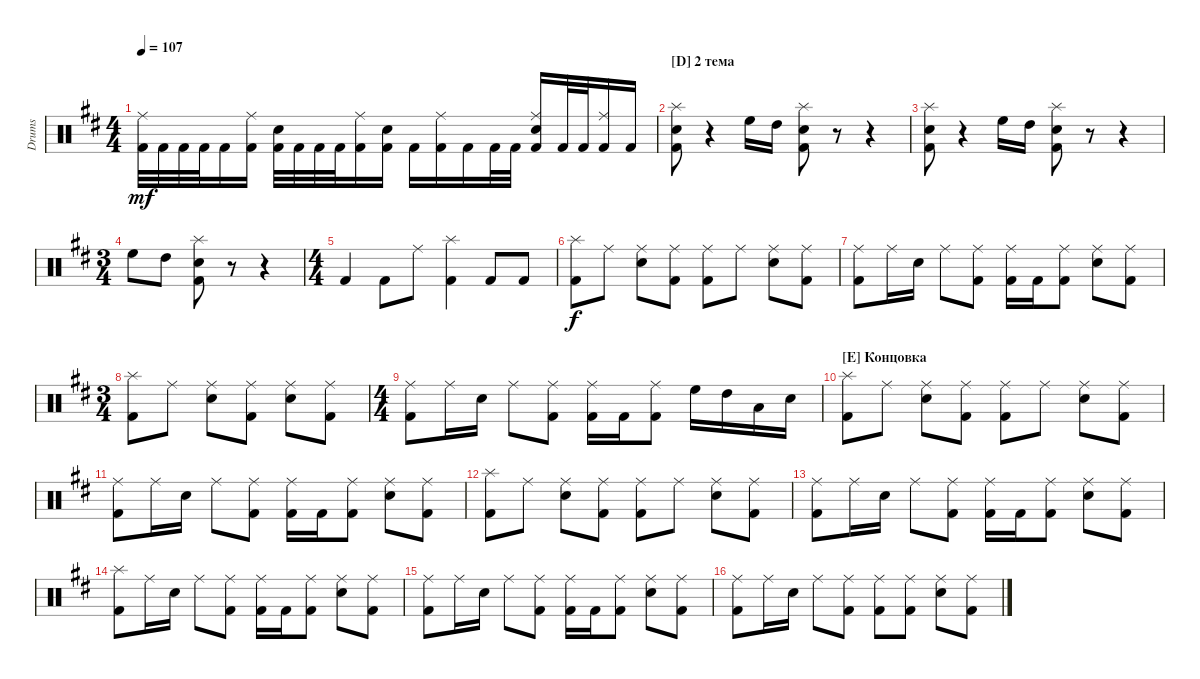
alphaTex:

\bracketExtendMode groupsimilarinstruments
\track ("Drumkit" "Drums") {multiBarRest instrument percussion}
\staff {score}
\articulation defaults
\ts (4 4)
\tempo 107
\clef neutral
\ks bminor
("Kick (hit) 2"{acc forcenatural} "Ride (middle)"{acc forcenatural}).32{dy mf beam Down} "Kick (hit) 2"{acc forcenatural}.32{beam Down} "Kick (hit) 2"{acc forcenatural}.32{beam Down} "Kick (hit) 2"{acc forcenatural}.32{beam Down} "Kick (hit) 2"{acc forcenatural}.16{beam Down} ("Kick (hit) 2"{acc forcenatural} "Ride (middle)"{acc forcenatural}).16{beam Down} ("Kick (hit) 2"{acc forcenatural} "Snare (hit) 2"{acc forcenatural}).32{beam Down} "Kick (hit) 2"{acc forcenatural}.32{beam Down} "Kick (hit) 2"{acc forcenatural}.32{beam Down} "Kick (hit) 2"{acc forcenatural}.32{beam Down} ("Kick (hit) 2"{acc forcenatural} "Ride (middle)"{acc forcenatural}).16{beam Down} ("Kick (hit) 2"{acc forcenatural} "Snare (hit) 2"{acc forcenatural}).16{beam Down} "Kick (hit) 2"{acc forcenatural}.16{beam Down} ("Kick (hit) 2"{acc forcenatural} "Ride (middle)"{acc forcenatural}).16{beam Down} "Kick (hit) 2"{acc forcenatural}.16{beam Down} "Kick (hit) 2"{acc forcenatural}.32{beam Down} "Kick (hit) 2"{acc forcenatural}.32{beam Down} ("Kick (hit) 2"{acc forcenatural} "Ride (middle)"{acc forcenatural} "Snare (hit) 2"{acc forcenatural}).16{beam Up} "Kick (hit) 2"{acc forcenatural}.32{beam Up} "Kick (hit) 2"{acc forcenatural}.32{beam Up} ("Kick (hit) 2"{acc forcenatural} "Ride (middle)"{acc forcenatural}).16{beam Up} "Kick (hit) 2"{acc forcenatural}.16{beam Up} |
\section ("D" "2 тема")
("Kick (hit) 2"{acc forcenatural} "Snare (hit) 2"{acc forcenatural} "Splash (hit)"{acc forcenatural}).8{beam Down} r.4{beam Down} "High Floor Tom (hit)"{acc forcenatural}.16{beam Down} "High Tom (hit)"{acc forcenatural}.16{beam Down} ("Snare (hit) 2"{acc forcenatural} "Splash (hit)"{acc forcenatural} "Kick (hit) 2"{acc forcenatural}).8{beam Down} r.8{beam Down} r.4{beam Down} |
("Kick (hit) 2"{acc forcenatural} "Snare (hit) 2"{acc forcenatural} "Splash (hit)"{acc forcenatural}).8{beam Down} r.4{beam Down} "High Floor Tom (hit)"{acc forcenatural}.16{beam Down} "High Tom (hit)"{acc forcenatural}.16{beam Down} ("Snare (hit) 2"{acc forcenatural} "Splash (hit)"{acc forcenatural} "Kick (hit) 2"{acc forcenatural}).8{beam Down} r.8{beam Down} r.4{beam Down} |
\ts (3 4)
"High Floor Tom (hit)"{acc forcenatural}.8{beam Down} "High Tom (hit)"{acc forcenatural}.8{beam Down} ("Snare (hit) 2"{acc forcenatural} "Splash (hit)"{acc forcenatural} "Kick (hit) 2"{acc forcenatural}).8{beam Down} r.8{beam Down} r.4{beam Down} |
\ts (4 4)
"Kick (hit) 2"{acc forcenatural}.4{beam Up} "Kick (hit) 2"{acc forcenatural}.8{beam Down} "Ride (middle)"{acc forcenatural}.8{beam Down} ("Splash (hit)"{acc forcenatural} "Kick (hit) 2"{acc forcenatural}).4{beam Down} "Kick (hit) 2"{acc forcenatural}.8{beam Up} "Kick (hit) 2"{acc forcenatural}.8{beam Up} |
("Kick (hit) 2"{acc forcenatural} "Splash (hit)"{acc forcenatural}).8{dy f beam Down} "Ride (middle)"{acc forcenatural}.8{beam Down} ("Ride (middle)"{acc forcenatural} "Snare (hit) 2"{acc forcenatural}).8{beam Down} ("Ride (middle)"{acc forcenatural} "Kick (hit) 2"{acc forcenatural}).8{beam Down} ("Kick (hit) 2"{acc forcenatural} "Ride (middle)"{acc forcenatural}).8{beam Down} "Ride (middle)"{acc forcenatural}.8{beam Down} ("Snare (hit) 2"{acc forcenatural} "Ride (middle)"{acc forcenatural}).8{beam Down} ("Ride (middle)"{acc forcenatural} "Kick (hit) 2"{acc forcenatural}).8{beam Down} |
("Kick (hit) 2"{acc forcenatural} "Ride (middle)"{acc forcenatural}).8{beam Down} "Ride (middle)"{acc forcenatural}.16{beam Down} "Snare (hit) 2"{acc forcenatural}.16{beam Down} "Ride (middle)"{acc forcenatural}.8{beam Down} ("Ride (middle)"{acc forcenatural} "Kick (hit) 2"{acc forcenatural}).8{beam Down} ("Kick (hit) 2"{acc forcenatural} "Ride (middle)"{acc forcenatural}).16{beam Down} "Kick (hit) 2"{acc forcenatural}.16{beam Down} ("Kick (hit) 2"{acc forcenatural} "Ride (middle)"{acc forcenatural}).8{beam Down} ("Snare (hit) 2"{acc forcenatural} "Ride (middle)"{acc forcenatural}).8{beam Down} ("Ride (middle)"{acc forcenatural} "Kick (hit) 2"{acc forcenatural}).8{beam Down} |
\ts (3 4)
("Kick (hit) 2"{acc forcenatural} "Splash (hit)"{acc forcenatural}).8{beam Down} "Ride (middle)"{acc forcenatural}.8{beam Down} ("Ride (middle)"{acc forcenatural} "Snare (hit) 2"{acc forcenatural}).8{beam Down} ("Ride (middle)"{acc forcenatural} "Kick (hit) 2"{acc forcenatural}).8{beam Down} ("Ride (middle)"{acc forcenatural} "Snare (hit) 2"{acc forcenatural}).8{beam Down} ("Ride (middle)"{acc forcenatural} "Kick (hit) 2"{acc forcenatural}).8{beam Down} |
\ts (4 4)
("Kick (hit) 2"{acc forcenatural} "Ride (middle)"{acc forcenatural}).8{beam Down} "Ride (middle)"{acc forcenatural}.16{beam Down} "Snare (hit) 2"{acc forcenatural}.16{beam Down} "Ride (middle)"{acc forcenatural}.8{beam Down} ("Ride (middle)"{acc forcenatural} "Kick (hit) 2"{acc forcenatural}).8{beam Down} ("Kick (hit) 2"{acc forcenatural} "Ride (middle)"{acc forcenatural}).16{beam Down} "Kick (hit) 2"{acc forcenatural}.16{beam Down} ("Kick (hit) 2"{acc forcenatural} "Ride (middle)"{acc forcenatural}).8{beam Down} "High Floor Tom (hit)"{acc forcenatural}.16{beam Down} "High Tom (hit)"{acc forcenatural}.16{beam Down} "Low Tom (hit)"{acc forcenatural}.16{beam Down} "Snare (hit) 2"{acc forcenatural}.16{beam Down} |
\section ("E" "Концовка")
("Kick (hit) 2"{acc forcenatural} "Splash (hit)"{acc forcenatural}).8{beam Down} "Ride (middle)"{acc forcenatural}.8{beam Down} ("Ride (middle)"{acc forcenatural} "Snare (hit) 2"{acc forcenatural}).8{beam Down} ("Ride (middle)"{acc forcenatural} "Kick (hit) 2"{acc forcenatural}).8{beam Down} ("Kick (hit) 2"{acc forcenatural} "Ride (middle)"{acc forcenatural}).8{beam Down} "Ride (middle)"{acc forcenatural}.8{beam Down} ("Snare (hit) 2"{acc forcenatural} "Ride (middle)"{acc forcenatural}).8{beam Down} ("Ride (middle)"{acc forcenatural} "Kick (hit) 2"{acc forcenatural}).8{beam Down} |
("Kick (hit) 2"{acc forcenatural} "Ride (middle)"{acc forcenatural}).8{beam Down} "Ride (middle)"{acc forcenatural}.16{beam Down} "Snare (hit) 2"{acc forcenatural}.16{beam Down} "Ride (middle)"{acc forcenatural}.8{beam Down} ("Ride (middle)"{acc forcenatural} "Kick (hit) 2"{acc forcenatural}).8{beam Down} ("Kick (hit) 2"{acc forcenatural} "Ride (middle)"{acc forcenatural}).16{beam Down} "Kick (hit) 2"{acc forcenatural}.16{beam Down} ("Kick (hit) 2"{acc forcenatural} "Ride (middle)"{acc forcenatural}).8{beam Down} ("Snare (hit) 2"{acc forcenatural} "Ride (middle)"{acc forcenatural}).8{beam Down} ("Ride (middle)"{acc forcenatural} "Kick (hit) 2"{acc forcenatural}).8{beam Down} |
("Kick (hit) 2"{acc forcenatural} "Splash (hit)"{acc forcenatural}).8{beam Down} "Ride (middle)"{acc forcenatural}.8{beam Down} ("Ride (middle)"{acc forcenatural} "Snare (hit) 2"{acc forcenatural}).8{beam Down} ("Ride (middle)"{acc forcenatural} "Kick (hit) 2"{acc forcenatural}).8{beam Down} ("Kick (hit) 2"{acc forcenatural} "Ride (middle)"{acc forcenatural}).8{beam Down} "Ride (middle)"{acc forcenatural}.8{beam Down} ("Snare (hit) 2"{acc forcenatural} "Ride (middle)"{acc forcenatural}).8{beam Down} ("Ride (middle)"{acc forcenatural} "Kick (hit) 2"{acc forcenatural}).8{beam Down} |
("Kick (hit) 2"{acc forcenatural} "Ride (middle)"{acc forcenatural}).8{beam Down} "Ride (middle)"{acc forcenatural}.16{beam Down} "Snare (hit) 2"{acc forcenatural}.16{beam Down} "Ride (middle)"{acc forcenatural}.8{beam Down} ("Ride (middle)"{acc forcenatural} "Kick (hit) 2"{acc forcenatural}).8{beam Down} ("Kick (hit) 2"{acc forcenatural} "Ride (middle)"{acc forcenatural}).16{beam Down} "Kick (hit) 2"{acc forcenatural}.16{beam Down} ("Kick (hit) 2"{acc forcenatural} "Ride (middle)"{acc forcenatural}).8{beam Down} ("Snare (hit) 2"{acc forcenatural} "Ride (middle)"{acc forcenatural}).8{beam Down} ("Ride (middle)"{acc forcenatural} "Kick (hit) 2"{acc forcenatural}).8{beam Down} |
("Kick (hit) 2"{acc forcenatural} "Splash (hit)"{acc forcenatural}).8{beam Down} "Ride (middle)"{acc forcenatural}.16{beam Down} "Snare (hit) 2"{acc forcenatural}.16{beam Down} "Ride (middle)"{acc forcenatural}.8{beam Down} ("Ride (middle)"{acc forcenatural} "Kick (hit) 2"{acc forcenatural}).8{beam Down} ("Kick (hit) 2"{acc forcenatural} "Ride (middle)"{acc forcenatural}).16{beam Down} "Kick (hit) 2"{acc forcenatural}.16{beam Down} ("Kick (hit) 2"{acc forcenatural} "Ride (middle)"{acc forcenatural}).8{beam Down} ("Snare (hit) 2"{acc forcenatural} "Ride (middle)"{acc forcenatural}).8{beam Down} ("Ride (middle)"{acc forcenatural} "Kick (hit) 2"{acc forcenatural}).8{beam Down} |
("Kick (hit) 2"{acc forcenatural} "Ride (middle)"{acc forcenatural}).8{beam Down} "Ride (middle)"{acc forcenatural}.16{beam Down} "Snare (hit) 2"{acc forcenatural}.16{beam Down} "Ride (middle)"{acc forcenatural}.8{beam Down} ("Ride (middle)"{acc forcenatural} "Kick (hit) 2"{acc forcenatural}).8{beam Down} ("Kick (hit) 2"{acc forcenatural} "Ride (middle)"{acc forcenatural}).16{beam Down} "Kick (hit) 2"{acc forcenatural}.16{beam Down} ("Kick (hit) 2"{acc forcenatural} "Ride (middle)"{acc forcenatural}).8{beam Down} ("Snare (hit) 2"{acc forcenatural} "Ride (middle)"{acc forcenatural}).8{beam Down} ("Ride (middle)"{acc forcenatural} "Kick (hit) 2"{acc forcenatural}).8{beam Down} |
("Kick (hit) 2"{acc forcenatural} "Ride (middle)"{acc forcenatural}).8{beam Down} "Ride (middle)"{acc forcenatural}.16{beam Down} "Snare (hit) 2"{acc forcenatural}.16{beam Down} "Ride (middle)"{acc forcenatural}.8{beam Down} ("Ride (middle)"{acc forcenatural} "Kick (hit) 2"{acc forcenatural}).8{beam Down} ("Kick (hit) 2"{acc forcenatural} "Ride (middle)"{acc forcenatural}).8{beam Down} ("Kick (hit) 2"{acc forcenatural} "Ride (middle)"{acc forcenatural}).8{beam Down} ("Snare (hit) 2"{acc forcenatural} "Ride (middle)"{acc forcenatural}).8{beam Down} ("Ride (middle)"{acc forcenatural} "Kick (hit) 2"{acc forcenatural}).8{beam Down}
